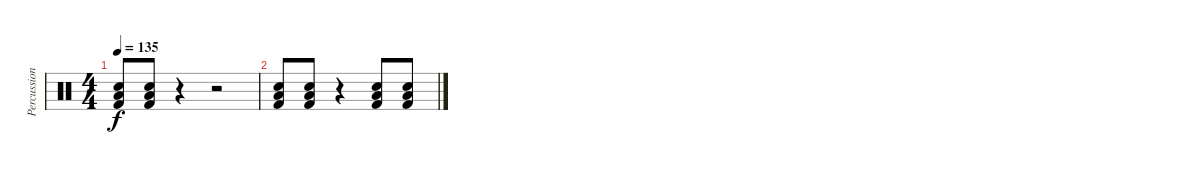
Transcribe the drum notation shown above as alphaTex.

\track ("Percussion" "Percussion") {instrument percussion}
\staff {score}
\articulation defaults
\ts (4 4)
\tempo 135
\clef neutral
\ks c
("Electric Snare (hit)" "Low Tom (hit)" "Kick (hit) 2").8{dy f} ("Electric Snare (hit)" "Low Tom (hit)" "Kick (hit) 2").8 r.4 r.2 |
("Electric Snare (hit)" "Low Tom (hit)" "Kick (hit) 2").8 ("Electric Snare (hit)" "Low Tom (hit)" "Kick (hit) 2").8 r.4 ("Electric Snare (hit)" "Low Tom (hit)" "Kick (hit) 2").8 ("Electric Snare (hit)" "Low Tom (hit)" "Kick (hit) 2").8
